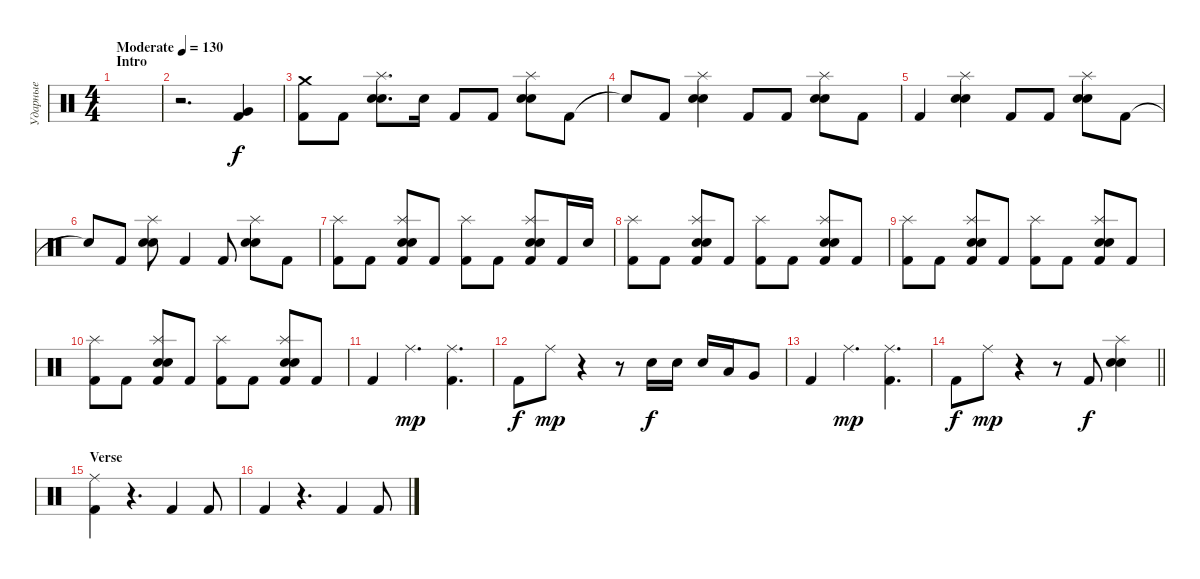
\track ("Ударные" "Ударные") {instrument percussion}
\staff {score}
\articulation defaults
\ts (4 4)
\section ("" "Intro")
\tempo (130 "Moderate")
\clef neutral
\ks c
|
r.2{d} ("Very Low Tom (hit)" "Kick (hit) 2").4 |
("Crash medium (hit)" "Kick (hit) 2").8 "Kick (hit) 2".8 ("Splash (hit)" "Electric Snare (hit)" "Snare (hit) 2").8{d} "Electric Snare (hit)".16 "Kick (hit) 2".8 "Kick (hit) 2".8 ("Splash (hit)" "Electric Snare (hit)" "Snare (hit) 2").8 "Kick (hit) 2".8 |
"Snare (hit)"{t}.8 "Kick (hit) 2".8 ("Splash (hit)" "Electric Snare (hit)" "Snare (hit) 2").4 "Kick (hit) 2".8 "Kick (hit) 2".8 ("Splash (hit)" "Electric Snare (hit)" "Snare (hit) 2").8 "Kick (hit) 2".8 |
"Kick (hit) 2".4 ("Splash (hit)" "Electric Snare (hit)" "Snare (hit) 2").4 "Kick (hit) 2".8 "Kick (hit) 2".8 ("Splash (hit)" "Electric Snare (hit)" "Snare (hit) 2").8 "Kick (hit) 2".8 |
"Snare (hit)"{t}.8 "Kick (hit) 2".8 ("Splash (hit)" "Electric Snare (hit)" "Snare (hit) 2").8 "Kick (hit) 2".4 "Kick (hit) 2".8 ("Splash (hit)" "Electric Snare (hit)" "Snare (hit) 2").8 "Kick (hit) 2".8 |
("Splash (hit)" "Kick (hit) 2").8 "Kick (hit) 2".8 ("Splash (hit)" "Electric Snare (hit)" "Snare (hit) 2" "Kick (hit) 2").8 "Kick (hit) 2".8 ("Splash (hit)" "Kick (hit) 2").8 "Kick (hit) 2".8 ("Splash (hit)" "Electric Snare (hit)" "Snare (hit) 2" "Kick (hit) 2").8 "Kick (hit) 2".16 "Electric Snare (hit)".16 |
("Splash (hit)" "Kick (hit) 2").8 "Kick (hit) 2".8 ("Splash (hit)" "Electric Snare (hit)" "Snare (hit) 2" "Kick (hit) 2").8 "Kick (hit) 2".8 ("Splash (hit)" "Kick (hit) 2").8 "Kick (hit) 2".8 ("Splash (hit)" "Electric Snare (hit)" "Snare (hit) 2" "Kick (hit) 2").8 "Kick (hit) 2".8 |
("Splash (hit)" "Kick (hit) 2").8 "Kick (hit) 2".8 ("Splash (hit)" "Electric Snare (hit)" "Snare (hit) 2" "Kick (hit) 2").8 "Kick (hit) 2".8 ("Splash (hit)" "Kick (hit) 2").8 "Kick (hit) 2".8 ("Splash (hit)" "Electric Snare (hit)" "Snare (hit) 2" "Kick (hit) 2").8 "Kick (hit) 2".8 |
("Splash (hit)" "Kick (hit) 2").8 "Kick (hit) 2".8 ("Splash (hit)" "Electric Snare (hit)" "Snare (hit) 2" "Kick (hit) 2").8 "Kick (hit) 2".8 ("Splash (hit)" "Kick (hit) 2").8 "Kick (hit) 2".8 ("Splash (hit)" "Electric Snare (hit)" "Snare (hit) 2" "Kick (hit) 2").8 "Kick (hit) 2".8 |
"Kick (hit) 2".4 "Ride (middle)".4{d dy mp} ("Ride (middle)" "Kick (hit) 2").4{d} |
"Kick (hit) 2".8{dy f} "Ride (middle)".8{dy mp} r.4 r.8 "Electric Snare (hit)".16{dy f} "Electric Snare (hit)".16 "Electric Snare (hit)".16 "Low Tom (hit)".16 "Very Low Tom (hit)".8 |
"Kick (hit) 2".4 "Ride (middle)".4{d dy mp} ("Ride (middle)" "Kick (hit) 2").4{d} |
\barLineRight lightlight "Kick (hit) 2".8{dy f} "Ride (middle)".8{dy mp}
r.4 r.8 "Kick (hit) 2".8{dy f} ("Splash (hit)" "Electric Snare (hit)" "Snare (hit) 2").4 |
\section ("" "Verse")
("Ride (middle)" "Kick (hit) 2").4 r.4{d} "Kick (hit) 2".4 "Kick (hit) 2".8 |
"Kick (hit) 2".4 r.4{d} "Kick (hit) 2".4 "Kick (hit) 2".8
